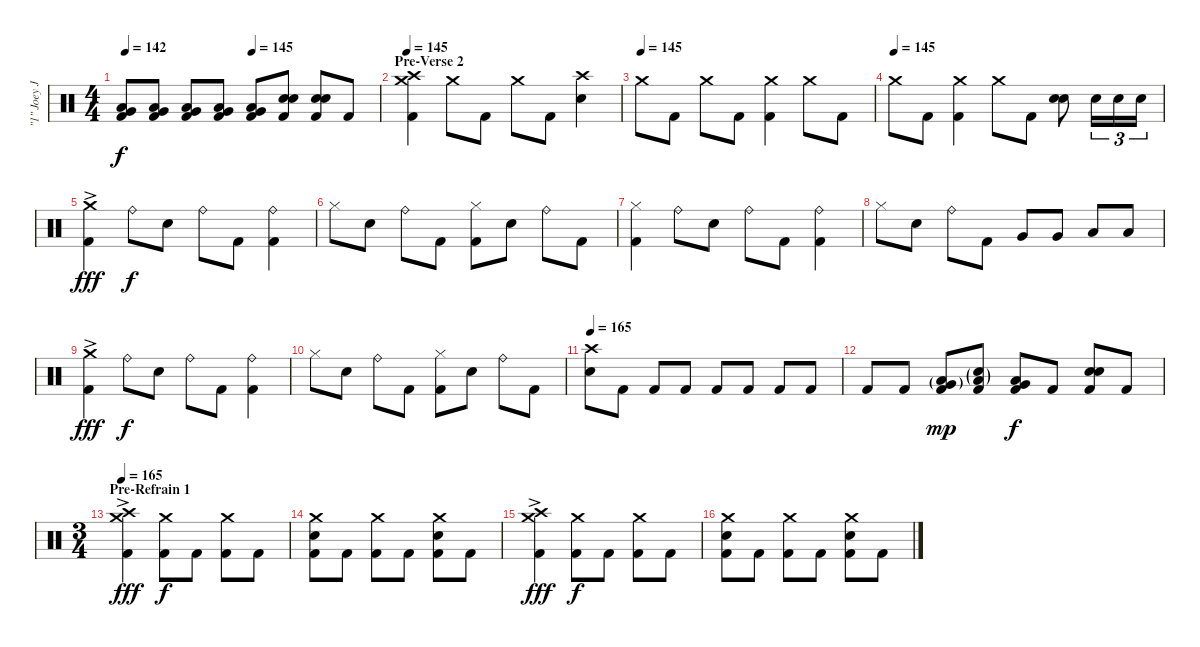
\track ("\"1\" Joey Jordison (Drums)" "\"1\" Joey J") {instrument percussion}
\staff {score}
\articulation defaults
\ts (4 4)
\tempo 142
\tempo (145 0.5)
\clef neutral
\ks c
("Very Low Tom (hit)" "Low Floor Tom (hit)" "Kick (hit) 2").8{dy f} ("Very Low Tom (hit)" "Low Floor Tom (hit)" "Kick (hit) 2").8 ("Very Low Tom (hit)" "Low Floor Tom (hit)" "Kick (hit) 2").8 ("Very Low Tom (hit)" "Low Floor Tom (hit)" "Kick (hit) 2").8 ("Very Low Tom (hit)" "Low Floor Tom (hit)" "Kick (hit) 2").8 ("Electric Snare (hit)" "Electric Snare (hit)" "Kick (hit) 2").8{bd 60} ("Electric Snare (hit)" "Electric Snare (hit)" "Kick (hit) 2").8{bd 60} "Kick (hit) 2".8 |
\section ("" "Pre-Verse 2")
\tempo 145
("Crash high (hit)" "Crash medium (hit)" "Kick (hit) 2").4 "Crash medium (hit)".8 "Kick (hit) 2".8 "Crash medium (hit)".8 "Kick (hit) 2".8 ("Crash high (hit)" "Electric Snare (hit)").4 |
\tempo (145)
"Crash medium (hit)".8 "Kick (hit) 2".8 "Crash medium (hit)".8 "Kick (hit) 2".8 ("Crash medium (hit)" "Kick (hit) 2").4 "Crash medium (hit)".8 "Kick (hit) 2".8 |
\tempo (145)
"Crash medium (hit)".8 "Kick (hit) 2".8 ("Crash medium (hit)" "Kick (hit) 2").4 "Crash medium (hit)".8 "Kick (hit) 2".8 ("Electric Snare (hit)" "Electric Snare (hit)").8{bd 120} "Electric Snare (hit)".16{tu (3 2)} "Electric Snare (hit)".16{tu (3 2)} "Electric Snare (hit)".16{tu (3 2)} |
("Crash medium (hit)"{ac} "Kick (hit) 2").4{dy fff} "Ride (bell)".8{dy f} "Electric Snare (hit)".8 "Ride (bell)".8 "Kick (hit) 2".8 ("Ride (bell)" "Kick (hit) 2").4 |
"Hi-Hat (closed)".8 "Electric Snare (hit)".8 "Ride (bell)".8 "Kick (hit) 2".8 ("Hi-Hat (closed)" "Kick (hit) 2").8 "Electric Snare (hit)".8 "Ride (bell)".8 "Kick (hit) 2".8 |
("Hi-Hat (closed)" "Kick (hit) 2").4 "Ride (bell)".8 "Electric Snare (hit)".8 "Ride (bell)".8 "Kick (hit) 2".8 ("Ride (bell)" "Kick (hit) 2").4 |
"Hi-Hat (closed)".8 "Electric Snare (hit)".8 "Ride (bell)".8 "Kick (hit) 2".8 "Very Low Tom (hit)".8 "Very Low Tom (hit)".8 "Low Floor Tom (hit)".8 "Low Floor Tom (hit)".8 |
("Crash medium (hit)"{ac} "Kick (hit) 2").4{dy fff} "Ride (bell)".8{dy f} "Electric Snare (hit)".8 "Ride (bell)".8 "Kick (hit) 2".8 ("Ride (bell)" "Kick (hit) 2").4 |
"Hi-Hat (closed)".8 "Electric Snare (hit)".8 "Ride (bell)".8 "Kick (hit) 2".8 ("Hi-Hat (closed)" "Kick (hit) 2").8 "Electric Snare (hit)".8 "Ride (bell)".8 "Kick (hit) 2".8 |
\tempo 165
("Crash high (hit)" "Electric Snare (hit)").8 "Kick (hit) 2".8 "Kick (hit) 2".8 "Kick (hit) 2".8 "Kick (hit) 2".8 "Kick (hit) 2".8 "Kick (hit) 2".8 "Kick (hit) 2".8 |
"Kick (hit) 2".8 "Kick (hit) 2".8 ("Very Low Tom (hit)"{g} "Low Floor Tom (hit)"{g} "Kick (hit) 2").8{dy mp} ("Electric Snare (hit)"{g} "Low Floor Tom (hit)"{g} "Kick (hit) 2").8 ("Very Low Tom (hit)" "Low Floor Tom (hit)" "Kick (hit) 2").8{dy f} "Kick (hit) 2".8 ("Electric Snare (hit)" "Electric Snare (hit)" "Kick (hit) 2").8{bd 60} "Kick (hit) 2".8 |
\ts (3 4)
\section ("" "Pre-Refrain 1")
\tempo 165
("Crash high (hit)"{ac} "Crash medium (hit)" "Kick (hit) 2").4{dy fff} ("Crash medium (hit)" "Kick (hit) 2").8{dy f} "Kick (hit) 2".8 ("Crash medium (hit)" "Kick (hit) 2").8 "Kick (hit) 2".8 |
("Crash medium (hit)" "Electric Snare (hit)" "Kick (hit) 2").8 "Kick (hit) 2".8 ("Crash medium (hit)" "Kick (hit) 2").8 "Kick (hit) 2".8 ("Crash medium (hit)" "Electric Snare (hit)" "Kick (hit) 2").8 "Kick (hit) 2".8 |
("Crash high (hit)"{ac} "Crash medium (hit)" "Kick (hit) 2").4{dy fff} ("Crash medium (hit)" "Kick (hit) 2").8{dy f} "Kick (hit) 2".8 ("Crash medium (hit)" "Kick (hit) 2").8 "Kick (hit) 2".8 |
("Crash medium (hit)" "Electric Snare (hit)" "Kick (hit) 2").8 "Kick (hit) 2".8 ("Crash medium (hit)" "Kick (hit) 2").8 "Kick (hit) 2".8 ("Crash medium (hit)" "Electric Snare (hit)" "Kick (hit) 2").8 "Kick (hit) 2".8
